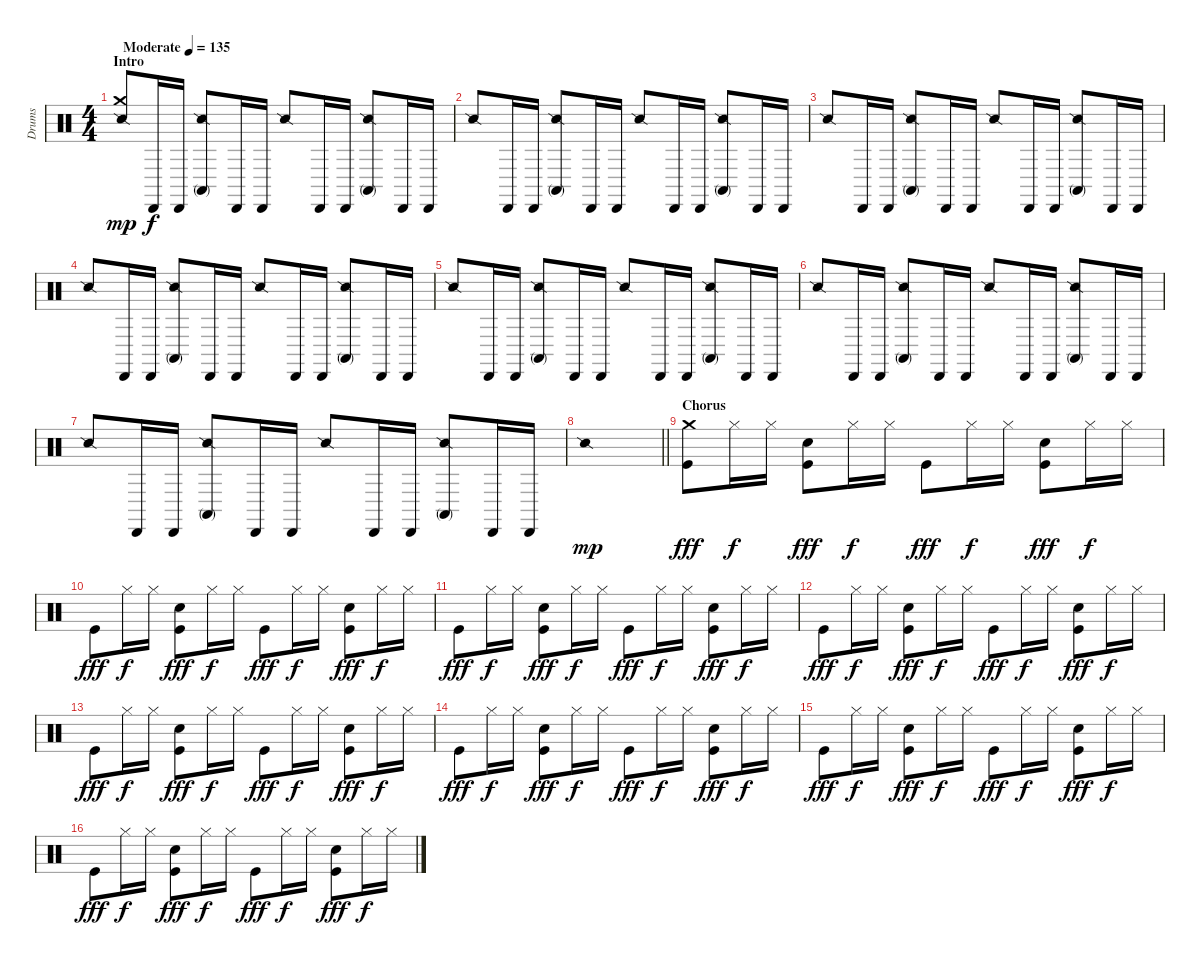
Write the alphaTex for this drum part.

\track ("Drums" "Drums") {instrument percussion}
\staff {score}
\articulation defaults
\ts (4 4)
\section ("" "Intro")
\tempo (135 "Moderate")
\clef neutral
\ks c
("Snare (side stick) 2" "Crash medium (hit)").8{dy mp} "Cabasa (hit)".16{dy f} "Cabasa (hit)".16 ("Snare (side stick) 2" "Conga high (mute)").8 "Cabasa (hit)".16 "Cabasa (hit)".16 "Snare (side stick) 2".8 "Cabasa (hit)".16 "Cabasa (hit)".16 ("Snare (side stick) 2" "Conga high (mute)").8 "Cabasa (hit)".16 "Cabasa (hit)".16 |
"Snare (side stick) 2".8 "Cabasa (hit)".16 "Cabasa (hit)".16 ("Snare (side stick) 2" "Conga high (mute)").8 "Cabasa (hit)".16 "Cabasa (hit)".16 "Snare (side stick) 2".8 "Cabasa (hit)".16 "Cabasa (hit)".16 ("Snare (side stick) 2" "Conga high (mute)").8 "Cabasa (hit)".16 "Cabasa (hit)".16 |
"Snare (side stick) 2".8 "Cabasa (hit)".16 "Cabasa (hit)".16 ("Snare (side stick) 2" "Conga high (mute)").8 "Cabasa (hit)".16 "Cabasa (hit)".16 "Snare (side stick) 2".8 "Cabasa (hit)".16 "Cabasa (hit)".16 ("Snare (side stick) 2" "Conga high (mute)").8 "Cabasa (hit)".16 "Cabasa (hit)".16 |
"Snare (side stick) 2".8 "Cabasa (hit)".16 "Cabasa (hit)".16 ("Snare (side stick) 2" "Conga high (mute)").8 "Cabasa (hit)".16 "Cabasa (hit)".16 "Snare (side stick) 2".8 "Cabasa (hit)".16 "Cabasa (hit)".16 ("Snare (side stick) 2" "Conga high (mute)").8 "Cabasa (hit)".16 "Cabasa (hit)".16 |
"Snare (side stick) 2".8 "Cabasa (hit)".16 "Cabasa (hit)".16 ("Snare (side stick) 2" "Conga high (mute)").8 "Cabasa (hit)".16 "Cabasa (hit)".16 "Snare (side stick) 2".8 "Cabasa (hit)".16 "Cabasa (hit)".16 ("Snare (side stick) 2" "Conga high (mute)").8 "Cabasa (hit)".16 "Cabasa (hit)".16 |
"Snare (side stick) 2".8 "Cabasa (hit)".16 "Cabasa (hit)".16 ("Snare (side stick) 2" "Conga high (mute)").8 "Cabasa (hit)".16 "Cabasa (hit)".16 "Snare (side stick) 2".8 "Cabasa (hit)".16 "Cabasa (hit)".16 ("Snare (side stick) 2" "Conga high (mute)").8 "Cabasa (hit)".16 "Cabasa (hit)".16 |
"Snare (side stick) 2".8 "Cabasa (hit)".16 "Cabasa (hit)".16 ("Snare (side stick) 2" "Conga high (mute)").8 "Cabasa (hit)".16 "Cabasa (hit)".16 "Snare (side stick) 2".8 "Cabasa (hit)".16 "Cabasa (hit)".16 ("Snare (side stick) 2" "Conga high (mute)").8 "Cabasa (hit)".16 "Cabasa (hit)".16 |
\barLineRight lightlight "Snare (side stick) 2".1{dy mp}
|
\section ("" "Chorus")
("Kick (hit)" "Crash medium (hit)").8{dy fff} "Hi-Hat (closed)".16{dy f} "Hi-Hat (closed)".16 ("Kick (hit)" "Snare (hit) 2").8{dy fff} "Hi-Hat (closed)".16{dy f} "Hi-Hat (closed)".16 "Kick (hit)".8{dy fff} "Hi-Hat (closed)".16{dy f} "Hi-Hat (closed)".16 ("Kick (hit)" "Snare (hit) 2").8{dy fff} "Hi-Hat (closed)".16{dy f} "Hi-Hat (closed)".16 |
"Kick (hit)".8{dy fff} "Hi-Hat (closed)".16{dy f} "Hi-Hat (closed)".16 ("Kick (hit)" "Snare (hit) 2").8{dy fff} "Hi-Hat (closed)".16{dy f} "Hi-Hat (closed)".16 "Kick (hit)".8{dy fff} "Hi-Hat (closed)".16{dy f} "Hi-Hat (closed)".16 ("Kick (hit)" "Snare (hit) 2").8{dy fff} "Hi-Hat (closed)".16{dy f} "Hi-Hat (closed)".16 |
"Kick (hit)".8{dy fff} "Hi-Hat (closed)".16{dy f} "Hi-Hat (closed)".16 ("Kick (hit)" "Snare (hit) 2").8{dy fff} "Hi-Hat (closed)".16{dy f} "Hi-Hat (closed)".16 "Kick (hit)".8{dy fff} "Hi-Hat (closed)".16{dy f} "Hi-Hat (closed)".16 ("Kick (hit)" "Snare (hit) 2").8{dy fff} "Hi-Hat (closed)".16{dy f} "Hi-Hat (closed)".16 |
"Kick (hit)".8{dy fff} "Hi-Hat (closed)".16{dy f} "Hi-Hat (closed)".16 ("Kick (hit)" "Snare (hit) 2").8{dy fff} "Hi-Hat (closed)".16{dy f} "Hi-Hat (closed)".16 "Kick (hit)".8{dy fff} "Hi-Hat (closed)".16{dy f} "Hi-Hat (closed)".16 ("Kick (hit)" "Snare (hit) 2").8{dy fff} "Hi-Hat (closed)".16{dy f} "Hi-Hat (closed)".16 |
"Kick (hit)".8{dy fff} "Hi-Hat (closed)".16{dy f} "Hi-Hat (closed)".16 ("Kick (hit)" "Snare (hit) 2").8{dy fff} "Hi-Hat (closed)".16{dy f} "Hi-Hat (closed)".16 "Kick (hit)".8{dy fff} "Hi-Hat (closed)".16{dy f} "Hi-Hat (closed)".16 ("Kick (hit)" "Snare (hit) 2").8{dy fff} "Hi-Hat (closed)".16{dy f} "Hi-Hat (closed)".16 |
"Kick (hit)".8{dy fff} "Hi-Hat (closed)".16{dy f} "Hi-Hat (closed)".16 ("Kick (hit)" "Snare (hit) 2").8{dy fff} "Hi-Hat (closed)".16{dy f} "Hi-Hat (closed)".16 "Kick (hit)".8{dy fff} "Hi-Hat (closed)".16{dy f} "Hi-Hat (closed)".16 ("Kick (hit)" "Snare (hit) 2").8{dy fff} "Hi-Hat (closed)".16{dy f} "Hi-Hat (closed)".16 |
"Kick (hit)".8{dy fff} "Hi-Hat (closed)".16{dy f} "Hi-Hat (closed)".16 ("Kick (hit)" "Snare (hit) 2").8{dy fff} "Hi-Hat (closed)".16{dy f} "Hi-Hat (closed)".16 "Kick (hit)".8{dy fff} "Hi-Hat (closed)".16{dy f} "Hi-Hat (closed)".16 ("Kick (hit)" "Snare (hit) 2").8{dy fff} "Hi-Hat (closed)".16{dy f} "Hi-Hat (closed)".16 |
"Kick (hit)".8{dy fff} "Hi-Hat (closed)".16{dy f} "Hi-Hat (closed)".16 ("Kick (hit)" "Snare (hit) 2").8{dy fff} "Hi-Hat (closed)".16{dy f} "Hi-Hat (closed)".16 "Kick (hit)".8{dy fff} "Hi-Hat (closed)".16{dy f} "Hi-Hat (closed)".16 ("Kick (hit)" "Snare (hit) 2").8{dy fff} "Hi-Hat (closed)".16{dy f} "Hi-Hat (closed)".16
